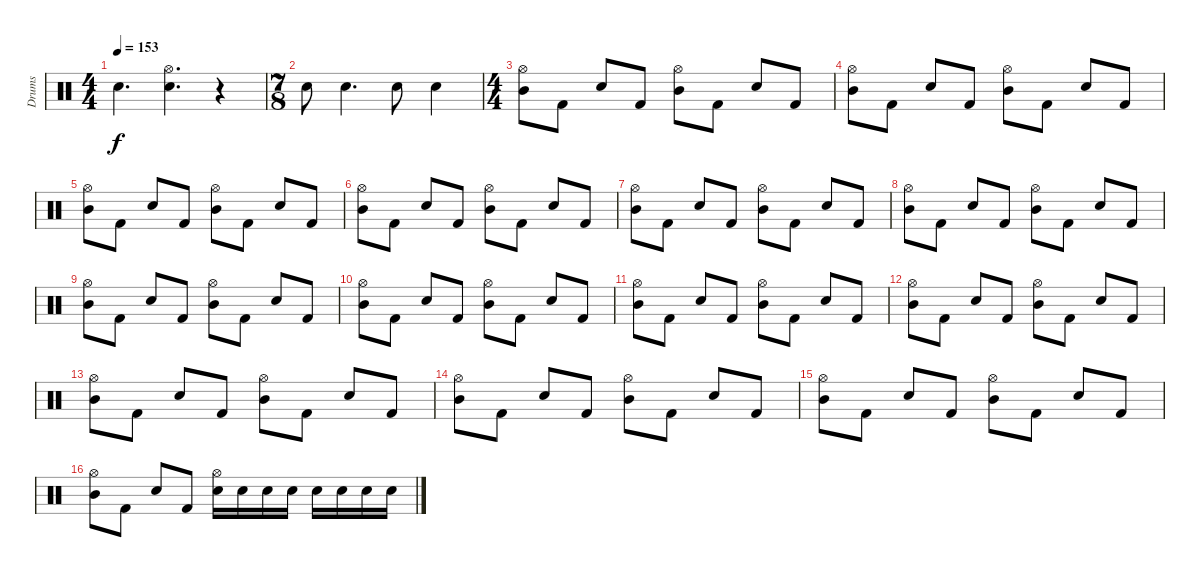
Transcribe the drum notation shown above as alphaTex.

\track ("Drums" "Drums") {instrument percussion}
\staff {score}
\articulation defaults
\ts (4 4)
\tempo 153
\clef neutral
\ks c "Electric Snare (hit)".4{d dy f}
("Electric Snare (hit)" "Hi-Hat (open)").4{d} r.4 |
\ts (7 8)
"Electric Snare (hit)".8 "Electric Snare (hit)".4{d} "Electric Snare (hit)".8 "Electric Snare (hit)".4 |
\ts (4 4)
("Hi-Hat (open)" "Mid Tom (hit)").8 "Kick (hit) 2".8 "Electric Snare (hit)".8 "Kick (hit) 2".8 ("Hi-Hat (open)" "Mid Tom (hit)").8 "Kick (hit) 2".8 "Electric Snare (hit)".8 "Kick (hit) 2".8 |
("Hi-Hat (open)" "Mid Tom (hit)").8 "Kick (hit) 2".8 "Electric Snare (hit)".8 "Kick (hit) 2".8 ("Hi-Hat (open)" "Mid Tom (hit)").8 "Kick (hit) 2".8 "Electric Snare (hit)".8 "Kick (hit) 2".8 |
("Hi-Hat (open)" "Mid Tom (hit)").8 "Kick (hit) 2".8 "Electric Snare (hit)".8 "Kick (hit) 2".8 ("Hi-Hat (open)" "Mid Tom (hit)").8 "Kick (hit) 2".8 "Electric Snare (hit)".8 "Kick (hit) 2".8 |
("Hi-Hat (open)" "Mid Tom (hit)").8 "Kick (hit) 2".8 "Electric Snare (hit)".8 "Kick (hit) 2".8 ("Hi-Hat (open)" "Mid Tom (hit)").8 "Kick (hit) 2".8 "Electric Snare (hit)".8 "Kick (hit) 2".8 |
("Hi-Hat (open)" "Mid Tom (hit)").8 "Kick (hit) 2".8 "Electric Snare (hit)".8 "Kick (hit) 2".8 ("Hi-Hat (open)" "Mid Tom (hit)").8 "Kick (hit) 2".8 "Electric Snare (hit)".8 "Kick (hit) 2".8 |
("Hi-Hat (open)" "Mid Tom (hit)").8 "Kick (hit) 2".8 "Electric Snare (hit)".8 "Kick (hit) 2".8 ("Hi-Hat (open)" "Mid Tom (hit)").8 "Kick (hit) 2".8 "Electric Snare (hit)".8 "Kick (hit) 2".8 |
("Hi-Hat (open)" "Mid Tom (hit)").8 "Kick (hit) 2".8 "Electric Snare (hit)".8 "Kick (hit) 2".8 ("Hi-Hat (open)" "Mid Tom (hit)").8 "Kick (hit) 2".8 "Electric Snare (hit)".8 "Kick (hit) 2".8 |
("Hi-Hat (open)" "Mid Tom (hit)").8 "Kick (hit) 2".8 "Electric Snare (hit)".8 "Kick (hit) 2".8 ("Hi-Hat (open)" "Mid Tom (hit)").8 "Kick (hit) 2".8 "Electric Snare (hit)".8 "Kick (hit) 2".8 |
("Hi-Hat (open)" "Mid Tom (hit)").8 "Kick (hit) 2".8 "Electric Snare (hit)".8 "Kick (hit) 2".8 ("Hi-Hat (open)" "Mid Tom (hit)").8 "Kick (hit) 2".8 "Electric Snare (hit)".8 "Kick (hit) 2".8 |
("Hi-Hat (open)" "Mid Tom (hit)").8 "Kick (hit) 2".8 "Electric Snare (hit)".8 "Kick (hit) 2".8 ("Hi-Hat (open)" "Mid Tom (hit)").8 "Kick (hit) 2".8 "Electric Snare (hit)".8 "Kick (hit) 2".8 |
("Hi-Hat (open)" "Mid Tom (hit)").8 "Kick (hit) 2".8 "Electric Snare (hit)".8 "Kick (hit) 2".8 ("Hi-Hat (open)" "Mid Tom (hit)").8 "Kick (hit) 2".8 "Electric Snare (hit)".8 "Kick (hit) 2".8 |
("Hi-Hat (open)" "Mid Tom (hit)").8 "Kick (hit) 2".8 "Electric Snare (hit)".8 "Kick (hit) 2".8 ("Hi-Hat (open)" "Mid Tom (hit)").8 "Kick (hit) 2".8 "Electric Snare (hit)".8 "Kick (hit) 2".8 |
("Hi-Hat (open)" "Mid Tom (hit)").8 "Kick (hit) 2".8 "Electric Snare (hit)".8 "Kick (hit) 2".8 ("Hi-Hat (open)" "Mid Tom (hit)").8 "Kick (hit) 2".8 "Electric Snare (hit)".8 "Kick (hit) 2".8 |
("Hi-Hat (open)" "Mid Tom (hit)").8 "Kick (hit) 2".8 "Electric Snare (hit)".8 "Kick (hit) 2".8 ("Hi-Hat (open)" "Electric Snare (hit)").16 "Electric Snare (hit)".16 "Electric Snare (hit)".16 "Electric Snare (hit)".16 "Electric Snare (hit)".16 "Electric Snare (hit)".16 "Electric Snare (hit)".16 "Electric Snare (hit)".16
